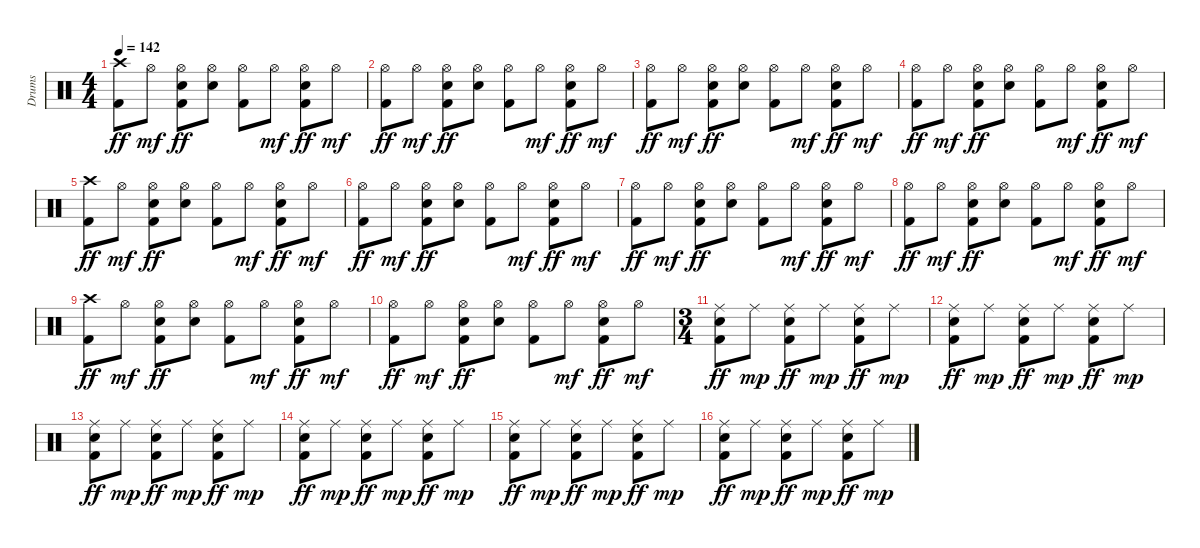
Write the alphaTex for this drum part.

\track ("Drums" "Drums") {instrument percussion}
\staff {score}
\articulation defaults
\ts (4 4)
\tempo 142
\clef neutral
\ks c
("Crash high (hit)" "Kick (hit) 2").8{dy ff} "Hi-Hat (open)".8{dy mf} ("Hi-Hat (open)" "Snare (hit) 2" "Kick (hit) 2").8{dy ff} ("Hi-Hat (open)" "Snare (hit) 2").8 ("Hi-Hat (open)" "Kick (hit) 2").8 "Hi-Hat (open)".8{dy mf} ("Hi-Hat (open)" "Snare (hit) 2" "Kick (hit) 2").8{dy ff} "Hi-Hat (open)".8{dy mf} |
("Hi-Hat (open)" "Kick (hit) 2").8{dy ff} "Hi-Hat (open)".8{dy mf} ("Hi-Hat (open)" "Snare (hit) 2" "Kick (hit) 2").8{dy ff} ("Hi-Hat (open)" "Snare (hit) 2").8 ("Hi-Hat (open)" "Kick (hit) 2").8 "Hi-Hat (open)".8{dy mf} ("Hi-Hat (open)" "Snare (hit) 2" "Kick (hit) 2").8{dy ff} "Hi-Hat (open)".8{dy mf} |
("Hi-Hat (open)" "Kick (hit) 2").8{dy ff} "Hi-Hat (open)".8{dy mf} ("Hi-Hat (open)" "Snare (hit) 2" "Kick (hit) 2").8{dy ff} ("Hi-Hat (open)" "Snare (hit) 2").8 ("Hi-Hat (open)" "Kick (hit) 2").8 "Hi-Hat (open)".8{dy mf} ("Hi-Hat (open)" "Snare (hit) 2" "Kick (hit) 2").8{dy ff} "Hi-Hat (open)".8{dy mf} |
("Hi-Hat (open)" "Kick (hit) 2").8{dy ff} "Hi-Hat (open)".8{dy mf} ("Hi-Hat (open)" "Snare (hit) 2" "Kick (hit) 2").8{dy ff} ("Hi-Hat (open)" "Snare (hit) 2").8 ("Hi-Hat (open)" "Kick (hit) 2").8 "Hi-Hat (open)".8{dy mf} ("Hi-Hat (open)" "Snare (hit) 2" "Kick (hit) 2").8{dy ff} "Hi-Hat (open)".8{dy mf} |
("Crash high (hit)" "Kick (hit) 2").8{dy ff} "Hi-Hat (open)".8{dy mf} ("Hi-Hat (open)" "Snare (hit) 2" "Kick (hit) 2").8{dy ff} ("Hi-Hat (open)" "Snare (hit) 2").8 ("Hi-Hat (open)" "Kick (hit) 2").8 "Hi-Hat (open)".8{dy mf} ("Hi-Hat (open)" "Snare (hit) 2" "Kick (hit) 2").8{dy ff} "Hi-Hat (open)".8{dy mf} |
("Hi-Hat (open)" "Kick (hit) 2").8{dy ff} "Hi-Hat (open)".8{dy mf} ("Hi-Hat (open)" "Snare (hit) 2" "Kick (hit) 2").8{dy ff} ("Hi-Hat (open)" "Snare (hit) 2").8 ("Hi-Hat (open)" "Kick (hit) 2").8 "Hi-Hat (open)".8{dy mf} ("Hi-Hat (open)" "Snare (hit) 2" "Kick (hit) 2").8{dy ff} "Hi-Hat (open)".8{dy mf} |
("Hi-Hat (open)" "Kick (hit) 2").8{dy ff} "Hi-Hat (open)".8{dy mf} ("Hi-Hat (open)" "Snare (hit) 2" "Kick (hit) 2").8{dy ff} ("Hi-Hat (open)" "Snare (hit) 2").8 ("Hi-Hat (open)" "Kick (hit) 2").8 "Hi-Hat (open)".8{dy mf} ("Hi-Hat (open)" "Snare (hit) 2" "Kick (hit) 2").8{dy ff} "Hi-Hat (open)".8{dy mf} |
("Hi-Hat (open)" "Kick (hit) 2").8{dy ff} "Hi-Hat (open)".8{dy mf} ("Hi-Hat (open)" "Snare (hit) 2" "Kick (hit) 2").8{dy ff} ("Hi-Hat (open)" "Snare (hit) 2").8 ("Hi-Hat (open)" "Kick (hit) 2").8 "Hi-Hat (open)".8{dy mf} ("Hi-Hat (open)" "Snare (hit) 2" "Kick (hit) 2").8{dy ff} "Hi-Hat (open)".8{dy mf} |
("Crash high (hit)" "Kick (hit) 2").8{dy ff} "Hi-Hat (open)".8{dy mf} ("Hi-Hat (open)" "Snare (hit) 2" "Kick (hit) 2").8{dy ff} ("Hi-Hat (open)" "Snare (hit) 2").8 ("Hi-Hat (open)" "Kick (hit) 2").8 "Hi-Hat (open)".8{dy mf} ("Hi-Hat (open)" "Snare (hit) 2" "Kick (hit) 2").8{dy ff} "Hi-Hat (open)".8{dy mf} |
("Hi-Hat (open)" "Kick (hit) 2").8{dy ff} "Hi-Hat (open)".8{dy mf} ("Hi-Hat (open)" "Snare (hit) 2" "Kick (hit) 2").8{dy ff} ("Hi-Hat (open)" "Snare (hit) 2").8 ("Hi-Hat (open)" "Kick (hit) 2").8 "Hi-Hat (open)".8{dy mf} ("Hi-Hat (open)" "Snare (hit) 2" "Kick (hit) 2").8{dy ff} "Hi-Hat (open)".8{dy mf} |
\ts (3 4)
("Ride (middle)" "Snare (hit) 2" "Kick (hit) 2").8{dy ff} "Ride (middle)".8{dy mp} ("Ride (middle)" "Snare (hit) 2" "Kick (hit) 2").8{dy ff} "Ride (middle)".8{dy mp} ("Ride (middle)" "Snare (hit) 2" "Kick (hit) 2").8{dy ff} "Ride (middle)".8{dy mp} |
("Ride (middle)" "Snare (hit) 2" "Kick (hit) 2").8{dy ff} "Ride (middle)".8{dy mp} ("Ride (middle)" "Snare (hit) 2" "Kick (hit) 2").8{dy ff} "Ride (middle)".8{dy mp} ("Ride (middle)" "Snare (hit) 2" "Kick (hit) 2").8{dy ff} "Ride (middle)".8{dy mp} |
("Ride (middle)" "Snare (hit) 2" "Kick (hit) 2").8{dy ff} "Ride (middle)".8{dy mp} ("Ride (middle)" "Snare (hit) 2" "Kick (hit) 2").8{dy ff} "Ride (middle)".8{dy mp} ("Ride (middle)" "Snare (hit) 2" "Kick (hit) 2").8{dy ff} "Ride (middle)".8{dy mp} |
("Ride (middle)" "Snare (hit) 2" "Kick (hit) 2").8{dy ff} "Ride (middle)".8{dy mp} ("Ride (middle)" "Snare (hit) 2" "Kick (hit) 2").8{dy ff} "Ride (middle)".8{dy mp} ("Ride (middle)" "Snare (hit) 2" "Kick (hit) 2").8{dy ff} "Ride (middle)".8{dy mp} |
("Ride (middle)" "Snare (hit) 2" "Kick (hit) 2").8{dy ff} "Ride (middle)".8{dy mp} ("Ride (middle)" "Snare (hit) 2" "Kick (hit) 2").8{dy ff} "Ride (middle)".8{dy mp} ("Ride (middle)" "Snare (hit) 2" "Kick (hit) 2").8{dy ff} "Ride (middle)".8{dy mp} |
("Ride (middle)" "Snare (hit) 2" "Kick (hit) 2").8{dy ff} "Ride (middle)".8{dy mp} ("Ride (middle)" "Snare (hit) 2" "Kick (hit) 2").8{dy ff} "Ride (middle)".8{dy mp} ("Ride (middle)" "Snare (hit) 2" "Kick (hit) 2").8{dy ff} "Ride (middle)".8{dy mp}
